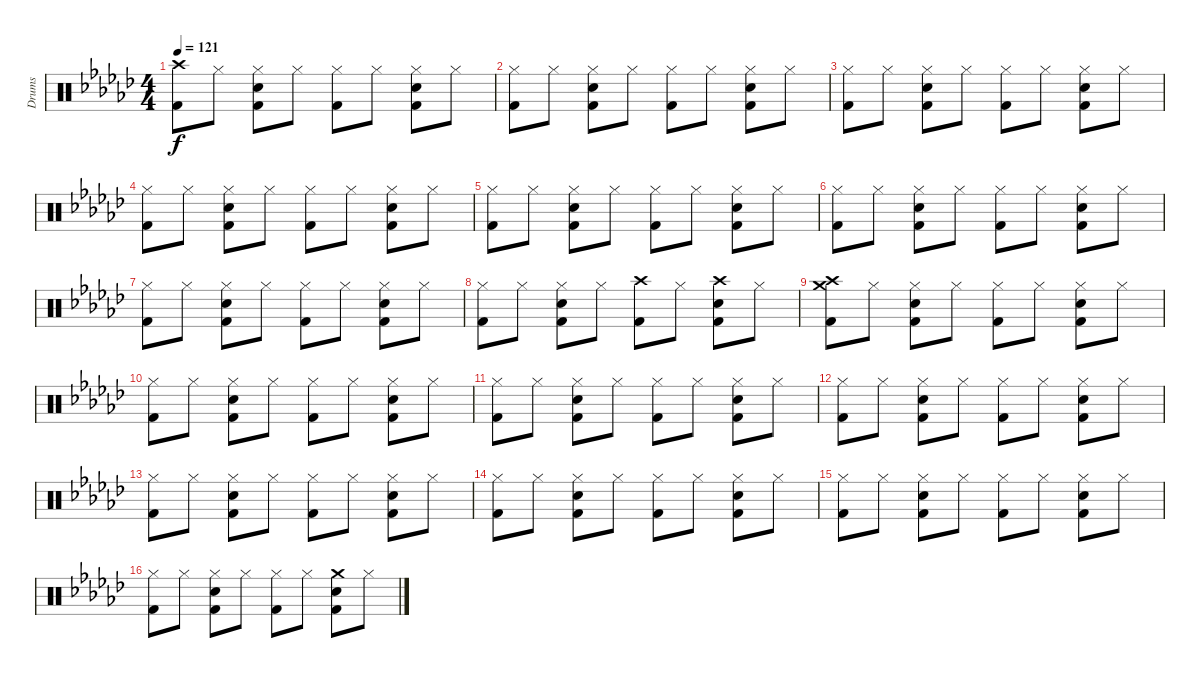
\track ("Drums" "Drums") {instrument percussion}
\staff {score}
\articulation defaults
\ts (4 4)
\tempo 121
\clef neutral
\ks ebminor
("Crash high (hit)" "Kick (hit) 2").8{dy f} "Hi-Hat (closed)".8 ("Hi-Hat (closed)" "Snare (hit) 2" "Kick (hit) 2").8 "Hi-Hat (closed)".8 ("Hi-Hat (closed)" "Kick (hit) 2").8 "Hi-Hat (closed)".8 ("Hi-Hat (closed)" "Snare (hit) 2" "Kick (hit) 2").8 "Hi-Hat (closed)".8 |
("Hi-Hat (closed)" "Kick (hit) 2").8 "Hi-Hat (closed)".8 ("Hi-Hat (closed)" "Snare (hit) 2" "Kick (hit) 2").8 "Hi-Hat (closed)".8 ("Hi-Hat (closed)" "Kick (hit) 2").8 "Hi-Hat (closed)".8 ("Hi-Hat (closed)" "Snare (hit) 2" "Kick (hit) 2").8 "Hi-Hat (closed)".8 |
("Hi-Hat (closed)" "Kick (hit) 2").8 "Hi-Hat (closed)".8 ("Hi-Hat (closed)" "Snare (hit) 2" "Kick (hit) 2").8 "Hi-Hat (closed)".8 ("Hi-Hat (closed)" "Kick (hit) 2").8 "Hi-Hat (closed)".8 ("Hi-Hat (closed)" "Snare (hit) 2" "Kick (hit) 2").8 "Hi-Hat (closed)".8 |
("Hi-Hat (closed)" "Kick (hit) 2").8 "Hi-Hat (closed)".8 ("Hi-Hat (closed)" "Snare (hit) 2" "Kick (hit) 2").8 "Hi-Hat (closed)".8 ("Hi-Hat (closed)" "Kick (hit) 2").8 "Hi-Hat (closed)".8 ("Hi-Hat (closed)" "Snare (hit) 2" "Kick (hit) 2").8 "Hi-Hat (closed)".8 |
("Hi-Hat (closed)" "Kick (hit) 2").8 "Hi-Hat (closed)".8 ("Hi-Hat (closed)" "Snare (hit) 2" "Kick (hit) 2").8 "Hi-Hat (closed)".8 ("Hi-Hat (closed)" "Kick (hit) 2").8 "Hi-Hat (closed)".8 ("Hi-Hat (closed)" "Snare (hit) 2" "Kick (hit) 2").8 "Hi-Hat (closed)".8 |
("Hi-Hat (closed)" "Kick (hit) 2").8 "Hi-Hat (closed)".8 ("Hi-Hat (closed)" "Snare (hit) 2" "Kick (hit) 2").8 "Hi-Hat (closed)".8 ("Hi-Hat (closed)" "Kick (hit) 2").8 "Hi-Hat (closed)".8 ("Hi-Hat (closed)" "Snare (hit) 2" "Kick (hit) 2").8 "Hi-Hat (closed)".8 |
("Hi-Hat (closed)" "Kick (hit) 2").8 "Hi-Hat (closed)".8 ("Hi-Hat (closed)" "Snare (hit) 2" "Kick (hit) 2").8 "Hi-Hat (closed)".8 ("Hi-Hat (closed)" "Kick (hit) 2").8 "Hi-Hat (closed)".8 ("Hi-Hat (closed)" "Snare (hit) 2" "Kick (hit) 2").8 "Hi-Hat (closed)".8 |
("Hi-Hat (closed)" "Kick (hit) 2").8 "Hi-Hat (closed)".8 ("Hi-Hat (closed)" "Snare (hit) 2" "Kick (hit) 2").8 "Hi-Hat (closed)".8 ("Crash high (hit)" "Kick (hit) 2").8 "Hi-Hat (closed)".8 ("Crash high (hit)" "Snare (hit) 2" "Kick (hit) 2").8 "Hi-Hat (closed)".8 |
("Crash high (hit)" "Crash medium (hit)" "Kick (hit) 2").8 "Hi-Hat (closed)".8 ("Hi-Hat (closed)" "Snare (hit) 2" "Kick (hit) 2").8 "Hi-Hat (closed)".8 ("Hi-Hat (closed)" "Kick (hit) 2").8 "Hi-Hat (closed)".8 ("Hi-Hat (closed)" "Snare (hit) 2" "Kick (hit) 2").8 "Hi-Hat (closed)".8 |
("Hi-Hat (closed)" "Kick (hit) 2").8 "Hi-Hat (closed)".8 ("Hi-Hat (closed)" "Snare (hit) 2" "Kick (hit) 2").8 "Hi-Hat (closed)".8 ("Hi-Hat (closed)" "Kick (hit) 2").8 "Hi-Hat (closed)".8 ("Hi-Hat (closed)" "Snare (hit) 2" "Kick (hit) 2").8 "Hi-Hat (closed)".8 |
("Hi-Hat (closed)" "Kick (hit) 2").8 "Hi-Hat (closed)".8 ("Hi-Hat (closed)" "Snare (hit) 2" "Kick (hit) 2").8 "Hi-Hat (closed)".8 ("Hi-Hat (closed)" "Kick (hit) 2").8 "Hi-Hat (closed)".8 ("Hi-Hat (closed)" "Snare (hit) 2" "Kick (hit) 2").8 "Hi-Hat (closed)".8 |
("Hi-Hat (closed)" "Kick (hit) 2").8 "Hi-Hat (closed)".8 ("Hi-Hat (closed)" "Snare (hit) 2" "Kick (hit) 2").8 "Hi-Hat (closed)".8 ("Hi-Hat (closed)" "Kick (hit) 2").8 "Hi-Hat (closed)".8 ("Hi-Hat (closed)" "Snare (hit) 2" "Kick (hit) 2").8 "Hi-Hat (closed)".8 |
("Hi-Hat (closed)" "Kick (hit) 2").8 "Hi-Hat (closed)".8 ("Hi-Hat (closed)" "Snare (hit) 2" "Kick (hit) 2").8 "Hi-Hat (closed)".8 ("Hi-Hat (closed)" "Kick (hit) 2").8 "Hi-Hat (closed)".8 ("Hi-Hat (closed)" "Snare (hit) 2" "Kick (hit) 2").8 "Hi-Hat (closed)".8 |
("Hi-Hat (closed)" "Kick (hit) 2").8 "Hi-Hat (closed)".8 ("Hi-Hat (closed)" "Snare (hit) 2" "Kick (hit) 2").8 "Hi-Hat (closed)".8 ("Hi-Hat (closed)" "Kick (hit) 2").8 "Hi-Hat (closed)".8 ("Hi-Hat (closed)" "Snare (hit) 2" "Kick (hit) 2").8 "Hi-Hat (closed)".8 |
("Hi-Hat (closed)" "Kick (hit) 2").8 "Hi-Hat (closed)".8 ("Hi-Hat (closed)" "Snare (hit) 2" "Kick (hit) 2").8 "Hi-Hat (closed)".8 ("Hi-Hat (closed)" "Kick (hit) 2").8 "Hi-Hat (closed)".8 ("Hi-Hat (closed)" "Snare (hit) 2" "Kick (hit) 2").8 "Hi-Hat (closed)".8 |
("Hi-Hat (closed)" "Kick (hit) 2").8 "Hi-Hat (closed)".8 ("Hi-Hat (closed)" "Snare (hit) 2" "Kick (hit) 2").8 "Hi-Hat (closed)".8 ("Hi-Hat (closed)" "Kick (hit) 2").8 "Hi-Hat (closed)".8 ("Crash medium (hit)" "Snare (hit) 2" "Kick (hit) 2").8 "Hi-Hat (closed)".8
